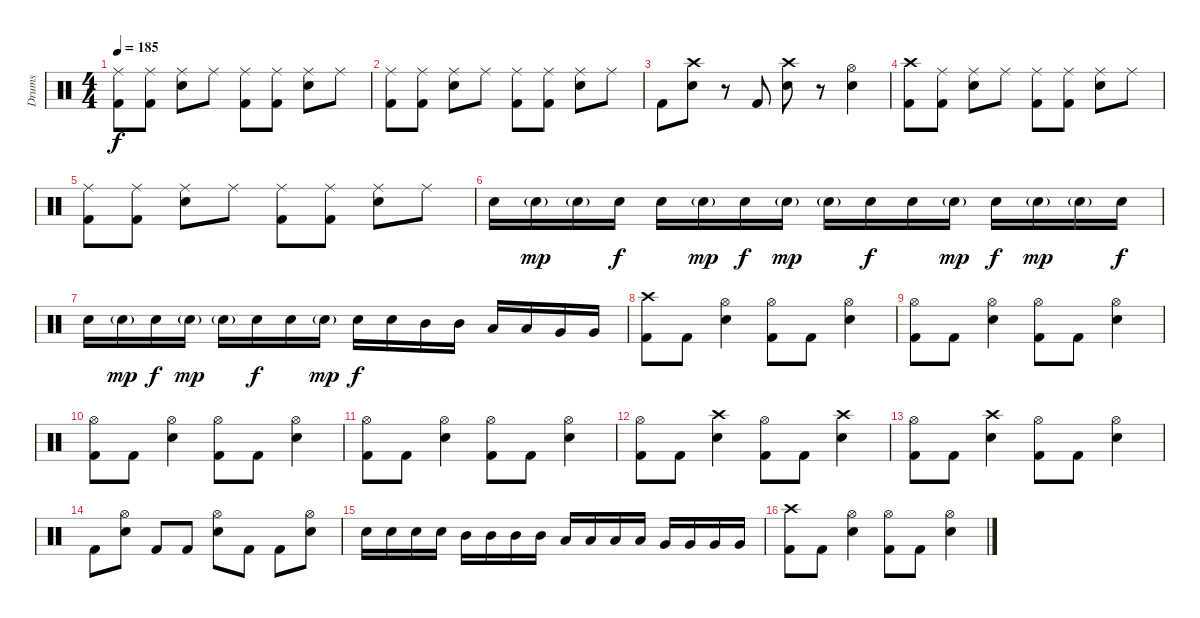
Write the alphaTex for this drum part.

\track ("Drums" "Drums") {instrument percussion}
\staff {score}
\articulation defaults
\ts (4 4)
\tempo 185
\clef neutral
\ks c
("Ride (middle)" "Kick (hit) 2").8{dy f} ("Ride (middle)" "Kick (hit) 2").8 ("Ride (middle)" "Snare (hit) 2").8 "Ride (middle)".8 ("Ride (middle)" "Kick (hit) 2").8 ("Ride (middle)" "Kick (hit) 2").8 ("Ride (middle)" "Snare (hit) 2").8 "Ride (middle)".8 |
("Ride (middle)" "Kick (hit) 2").8 ("Ride (middle)" "Kick (hit) 2").8 ("Ride (middle)" "Snare (hit) 2").8 "Ride (middle)".8 ("Ride (middle)" "Kick (hit) 2").8 ("Ride (middle)" "Kick (hit) 2").8 ("Ride (middle)" "Snare (hit) 2").8 "Ride (middle)".8 |
"Kick (hit) 2".8 ("Crash high (hit)" "Snare (hit) 2").8 r.8 "Kick (hit) 2".8 ("Crash high (hit)" "Snare (hit) 2").8 r.8 ("Hi-Hat (open)" "Snare (hit) 2").4 |
("Crash high (hit)" "Kick (hit) 2").8 ("Ride (middle)" "Kick (hit) 2").8 ("Ride (middle)" "Snare (hit) 2").8 "Ride (middle)".8 ("Ride (middle)" "Kick (hit) 2").8 ("Ride (middle)" "Kick (hit) 2").8 ("Ride (middle)" "Snare (hit) 2").8 "Ride (middle)".8 |
("Ride (middle)" "Kick (hit) 2").8 ("Ride (middle)" "Kick (hit) 2").8 ("Ride (middle)" "Snare (hit) 2").8 "Ride (middle)".8 ("Ride (middle)" "Kick (hit) 2").8 ("Ride (middle)" "Kick (hit) 2").8 ("Ride (middle)" "Snare (hit) 2").8 "Ride (middle)".8 |
"Snare (hit) 2".16 "Snare (hit) 2"{g}.16{dy mp} "Snare (hit) 2"{g}.16 "Snare (hit) 2".16{dy f} "Snare (hit) 2".16 "Snare (hit) 2"{g}.16{dy mp} "Snare (hit) 2".16{dy f} "Snare (hit) 2"{g}.16{dy mp} "Snare (hit) 2"{g}.16 "Snare (hit) 2".16{dy f} "Snare (hit) 2".16 "Snare (hit) 2"{g}.16{dy mp} "Snare (hit) 2".16{dy f} "Snare (hit) 2"{g}.16{dy mp} "Snare (hit) 2"{g}.16 "Snare (hit) 2".16{dy f} |
"Snare (hit) 2".16 "Snare (hit) 2"{g}.16{dy mp} "Snare (hit) 2".16{dy f} "Snare (hit) 2"{g}.16{dy mp} "Snare (hit) 2"{g}.16 "Snare (hit) 2".16{dy f} "Snare (hit) 2".16 "Snare (hit) 2"{g}.16{dy mp} "Snare (hit) 2".16{dy f} "Snare (hit) 2".16 "Mid Tom (hit)".16 "Mid Tom (hit)".16 "Low Tom (hit)".16 "Low Tom (hit)".16 "Very Low Tom (hit)".16 "Very Low Tom (hit)".16 |
("Crash high (hit)" "Kick (hit) 2").8 "Kick (hit) 2".8 ("Hi-Hat (open)" "Snare (hit) 2").4 ("Hi-Hat (open)" "Kick (hit) 2").8 "Kick (hit) 2".8 ("Hi-Hat (open)" "Snare (hit) 2").4 |
("Hi-Hat (open)" "Kick (hit) 2").8 "Kick (hit) 2".8 ("Hi-Hat (open)" "Snare (hit) 2").4 ("Hi-Hat (open)" "Kick (hit) 2").8 "Kick (hit) 2".8 ("Hi-Hat (open)" "Snare (hit) 2").4 |
("Hi-Hat (open)" "Kick (hit) 2").8 "Kick (hit) 2".8 ("Hi-Hat (open)" "Snare (hit) 2").4 ("Hi-Hat (open)" "Kick (hit) 2").8 "Kick (hit) 2".8 ("Hi-Hat (open)" "Snare (hit) 2").4 |
("Hi-Hat (open)" "Kick (hit) 2").8 "Kick (hit) 2".8 ("Hi-Hat (open)" "Snare (hit) 2").4 ("Hi-Hat (open)" "Kick (hit) 2").8 "Kick (hit) 2".8 ("Hi-Hat (open)" "Snare (hit) 2").4 |
("Hi-Hat (open)" "Kick (hit) 2").8 "Kick (hit) 2".8 ("Crash high (hit)" "Snare (hit) 2").4 ("Hi-Hat (open)" "Kick (hit) 2").8 "Kick (hit) 2".8 ("Crash high (hit)" "Snare (hit) 2").4 |
("Hi-Hat (open)" "Kick (hit) 2").8 "Kick (hit) 2".8 ("Crash high (hit)" "Snare (hit) 2").4 ("Hi-Hat (open)" "Kick (hit) 2").8 "Kick (hit) 2".8 ("Hi-Hat (open)" "Snare (hit) 2").4 |
"Kick (hit) 2".8 ("Hi-Hat (open)" "Snare (hit) 2").8 "Kick (hit) 2".8 "Kick (hit) 2".8 ("Hi-Hat (open)" "Snare (hit) 2").8 "Kick (hit) 2".8 "Kick (hit) 2".8 ("Hi-Hat (open)" "Snare (hit) 2").8 |
"Snare (hit) 2".16 "Snare (hit) 2".16 "Snare (hit) 2".16 "Snare (hit) 2".16 "Mid Tom (hit)".16 "Mid Tom (hit)".16 "Mid Tom (hit)".16 "Mid Tom (hit)".16 "Low Tom (hit)".16 "Low Tom (hit)".16 "Low Tom (hit)".16 "Low Tom (hit)".16 "Very Low Tom (hit)".16 "Very Low Tom (hit)".16 "Very Low Tom (hit)".16 "Very Low Tom (hit)".16 |
("Crash high (hit)" "Kick (hit) 2").8 "Kick (hit) 2".8 ("Hi-Hat (open)" "Snare (hit) 2").4 ("Hi-Hat (open)" "Kick (hit) 2").8 "Kick (hit) 2".8 ("Hi-Hat (open)" "Snare (hit) 2").4
